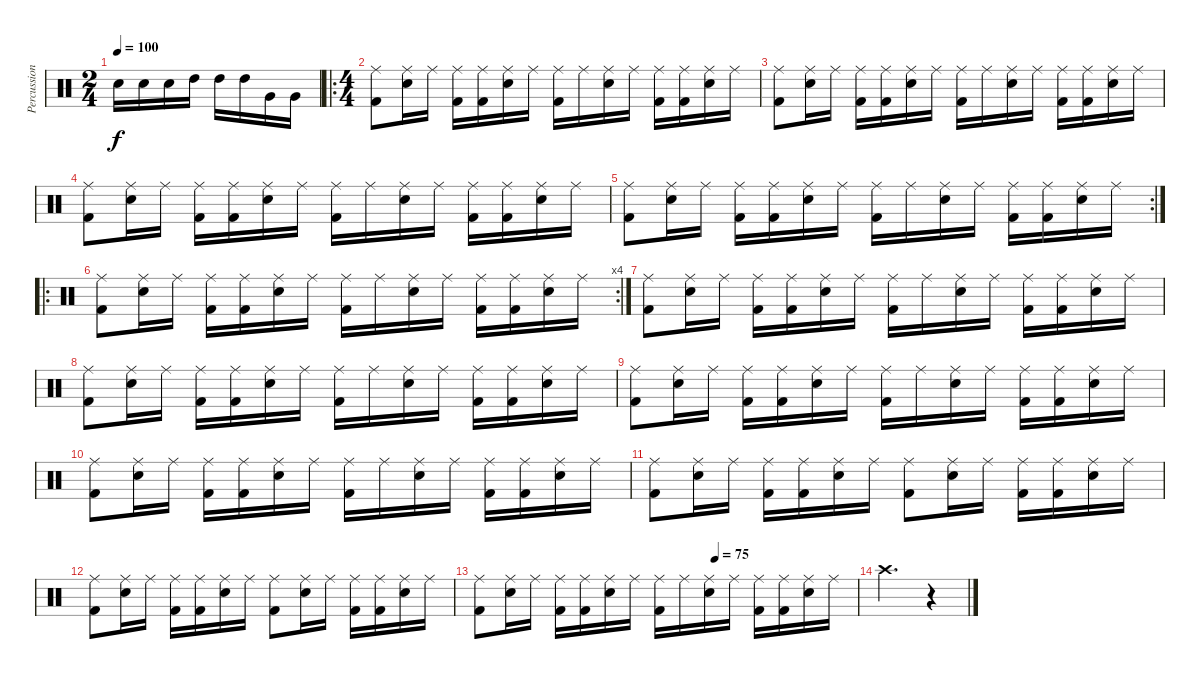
\track ("Percussion" "Percussion") {instrument percussion}
\staff {score}
\articulation defaults
\ts (2 4)
\tempo 100
\clef neutral
\ks c "Electric Snare (hit)".16{dy f} "Electric Snare (hit)".16 "Electric Snare (hit)".16 "High Tom (hit)".16 "High Tom (hit)".16 "High Tom (hit)".16 "Very Low Tom (hit)".16 "Very Low Tom (hit)".16
|
\ro
\ts (4 4)
("Ride (middle)" "Kick (hit) 2").8 ("Ride (middle)" "Electric Snare (hit)").16 "Ride (middle)".16 ("Ride (middle)" "Kick (hit) 2").16 ("Ride (middle)" "Kick (hit) 2").16 ("Ride (middle)" "Electric Snare (hit)").16 "Ride (middle)".16 ("Ride (middle)" "Kick (hit) 2").16 "Ride (middle)".16 ("Ride (middle)" "Electric Snare (hit)").16 "Ride (middle)".16 ("Ride (middle)" "Kick (hit) 2").16 ("Ride (middle)" "Kick (hit) 2").16 ("Ride (middle)" "Electric Snare (hit)").16 "Ride (middle)".16 |
("Ride (middle)" "Kick (hit) 2").8 ("Ride (middle)" "Electric Snare (hit)").16 "Ride (middle)".16 ("Ride (middle)" "Kick (hit) 2").16 ("Ride (middle)" "Kick (hit) 2").16 ("Ride (middle)" "Electric Snare (hit)").16 "Ride (middle)".16 ("Ride (middle)" "Kick (hit) 2").16 "Ride (middle)".16 ("Ride (middle)" "Electric Snare (hit)").16 "Ride (middle)".16 ("Ride (middle)" "Kick (hit) 2").16 ("Ride (middle)" "Kick (hit) 2").16 ("Ride (middle)" "Electric Snare (hit)").16 "Ride (middle)".16 |
("Ride (middle)" "Kick (hit) 2").8 ("Ride (middle)" "Electric Snare (hit)").16 "Ride (middle)".16 ("Ride (middle)" "Kick (hit) 2").16 ("Ride (middle)" "Kick (hit) 2").16 ("Ride (middle)" "Electric Snare (hit)").16 "Ride (middle)".16 ("Ride (middle)" "Kick (hit) 2").16 "Ride (middle)".16 ("Ride (middle)" "Electric Snare (hit)").16 "Ride (middle)".16 ("Ride (middle)" "Kick (hit) 2").16 ("Ride (middle)" "Kick (hit) 2").16 ("Ride (middle)" "Electric Snare (hit)").16 "Ride (middle)".16 |
\rc 2
("Ride (middle)" "Kick (hit) 2").8 ("Ride (middle)" "Electric Snare (hit)").16 "Ride (middle)".16 ("Ride (middle)" "Kick (hit) 2").16 ("Ride (middle)" "Kick (hit) 2").16 ("Ride (middle)" "Electric Snare (hit)").16 "Ride (middle)".16 ("Ride (middle)" "Kick (hit) 2").16 "Ride (middle)".16 ("Ride (middle)" "Electric Snare (hit)").16 "Ride (middle)".16 ("Ride (middle)" "Kick (hit) 2").16 ("Ride (middle)" "Kick (hit) 2").16 ("Ride (middle)" "Electric Snare (hit)").16 "Ride (middle)".16 |
\ro
\rc 4
("Ride (middle)" "Kick (hit) 2").8 ("Ride (middle)" "Electric Snare (hit)").16 "Ride (middle)".16 ("Ride (middle)" "Kick (hit) 2").16 ("Ride (middle)" "Kick (hit) 2").16 ("Ride (middle)" "Electric Snare (hit)").16 "Ride (middle)".16 ("Ride (middle)" "Kick (hit) 2").16 "Ride (middle)".16 ("Ride (middle)" "Electric Snare (hit)").16 "Ride (middle)".16 ("Ride (middle)" "Kick (hit) 2").16 ("Ride (middle)" "Kick (hit) 2").16 ("Ride (middle)" "Electric Snare (hit)").16 "Ride (middle)".16 |
("Ride (middle)" "Kick (hit) 2").8 ("Ride (middle)" "Electric Snare (hit)").16 "Ride (middle)".16 ("Ride (middle)" "Kick (hit) 2").16 ("Ride (middle)" "Kick (hit) 2").16 ("Ride (middle)" "Electric Snare (hit)").16 "Ride (middle)".16 ("Ride (middle)" "Kick (hit) 2").16 "Ride (middle)".16 ("Ride (middle)" "Electric Snare (hit)").16 "Ride (middle)".16 ("Ride (middle)" "Kick (hit) 2").16 ("Ride (middle)" "Kick (hit) 2").16 ("Ride (middle)" "Electric Snare (hit)").16 "Ride (middle)".16 |
("Ride (middle)" "Kick (hit) 2").8 ("Ride (middle)" "Electric Snare (hit)").16 "Ride (middle)".16 ("Ride (middle)" "Kick (hit) 2").16 ("Ride (middle)" "Kick (hit) 2").16 ("Ride (middle)" "Electric Snare (hit)").16 "Ride (middle)".16 ("Ride (middle)" "Kick (hit) 2").16 "Ride (middle)".16 ("Ride (middle)" "Electric Snare (hit)").16 "Ride (middle)".16 ("Ride (middle)" "Kick (hit) 2").16 ("Ride (middle)" "Kick (hit) 2").16 ("Ride (middle)" "Electric Snare (hit)").16 "Ride (middle)".16 |
("Ride (middle)" "Kick (hit) 2").8 ("Ride (middle)" "Electric Snare (hit)").16 "Ride (middle)".16 ("Ride (middle)" "Kick (hit) 2").16 ("Ride (middle)" "Kick (hit) 2").16 ("Ride (middle)" "Electric Snare (hit)").16 "Ride (middle)".16 ("Ride (middle)" "Kick (hit) 2").16 "Ride (middle)".16 ("Ride (middle)" "Electric Snare (hit)").16 "Ride (middle)".16 ("Ride (middle)" "Kick (hit) 2").16 ("Ride (middle)" "Kick (hit) 2").16 ("Ride (middle)" "Electric Snare (hit)").16 "Ride (middle)".16 |
("Ride (middle)" "Kick (hit) 2").8 ("Ride (middle)" "Electric Snare (hit)").16 "Ride (middle)".16 ("Ride (middle)" "Kick (hit) 2").16 ("Ride (middle)" "Kick (hit) 2").16 ("Ride (middle)" "Electric Snare (hit)").16 "Ride (middle)".16 ("Ride (middle)" "Kick (hit) 2").16 "Ride (middle)".16 ("Ride (middle)" "Electric Snare (hit)").16 "Ride (middle)".16 ("Ride (middle)" "Kick (hit) 2").16 ("Ride (middle)" "Kick (hit) 2").16 ("Ride (middle)" "Electric Snare (hit)").16 "Ride (middle)".16 |
("Ride (middle)" "Kick (hit) 2").8 ("Ride (middle)" "Electric Snare (hit)").16 "Ride (middle)".16 ("Ride (middle)" "Kick (hit) 2").16 ("Ride (middle)" "Kick (hit) 2").16 ("Ride (middle)" "Electric Snare (hit)").16 "Ride (middle)".16 ("Ride (middle)" "Kick (hit) 2").8 ("Ride (middle)" "Electric Snare (hit)").16 "Ride (middle)".16 ("Ride (middle)" "Kick (hit) 2").16 ("Ride (middle)" "Kick (hit) 2").16 ("Ride (middle)" "Electric Snare (hit)").16 "Ride (middle)".16 |
("Ride (middle)" "Kick (hit) 2").8 ("Ride (middle)" "Electric Snare (hit)").16 "Ride (middle)".16 ("Ride (middle)" "Kick (hit) 2").16 ("Ride (middle)" "Kick (hit) 2").16 ("Ride (middle)" "Electric Snare (hit)").16 "Ride (middle)".16 ("Ride (middle)" "Kick (hit) 2").8 ("Ride (middle)" "Electric Snare (hit)").16 "Ride (middle)".16 ("Ride (middle)" "Kick (hit) 2").16 ("Ride (middle)" "Kick (hit) 2").16 ("Ride (middle)" "Electric Snare (hit)").16 "Ride (middle)".16 |
\tempo (75 0.625)
("Ride (middle)" "Kick (hit) 2").8 ("Ride (middle)" "Electric Snare (hit)").16 "Ride (middle)".16 ("Ride (middle)" "Kick (hit) 2").16 ("Ride (middle)" "Kick (hit) 2").16 ("Ride (middle)" "Electric Snare (hit)").16 "Ride (middle)".16 ("Ride (middle)" "Kick (hit) 2").16 "Ride (middle)".16 ("Ride (middle)" "Electric Snare (hit)").16 "Ride (middle)".16 ("Ride (middle)" "Kick (hit) 2").16 ("Ride (middle)" "Kick (hit) 2").16 ("Ride (middle)" "Electric Snare (hit)").16 "Ride (middle)".16 |
"Crash high (hit)".2{d} r.4
